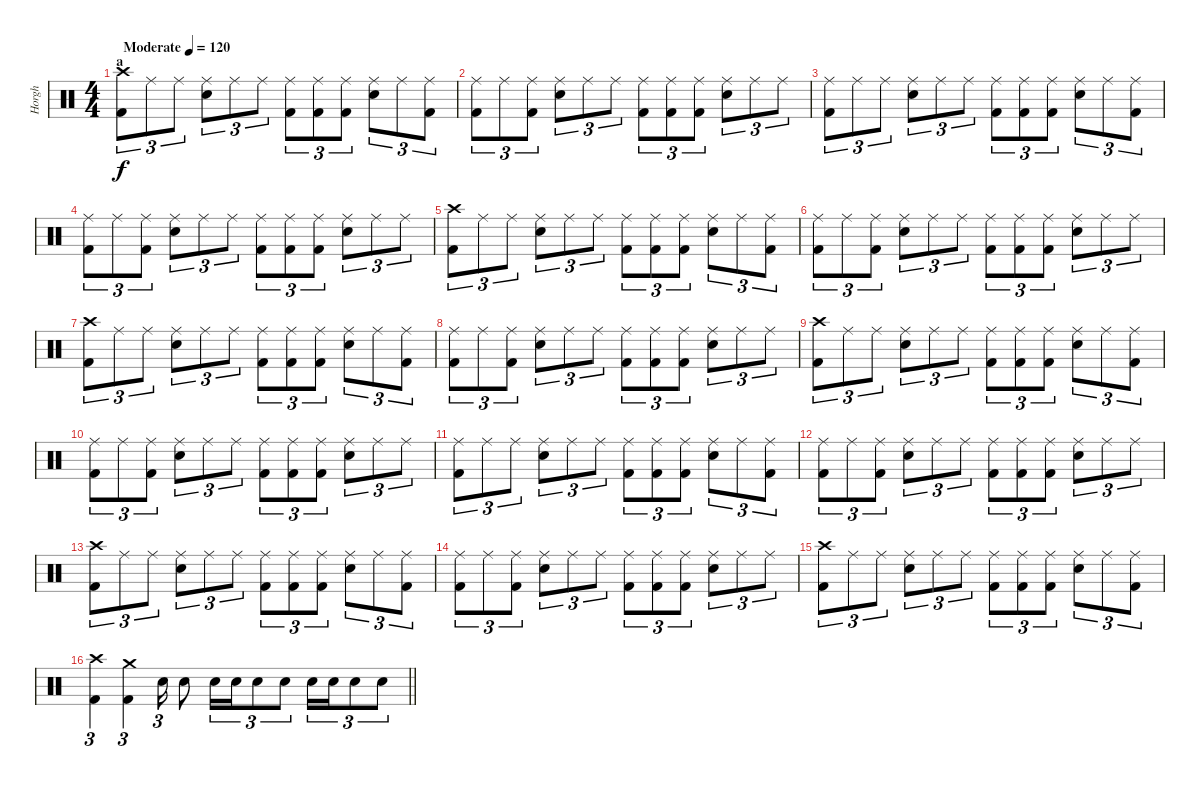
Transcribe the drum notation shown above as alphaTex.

\track ("Horgh" "Horgh") {instrument percussion}
\staff {score}
\articulation defaults
\ts (4 4)
\section ("" "a")
\tempo (120 "Moderate")
\clef neutral
\ks c
("Crash high (hit)" "Kick (hit) 2").8{tu (3 2) dy f} "Ride (middle)".8{tu (3 2)} "Ride (middle)".8{tu (3 2)} ("Ride (middle)" "Electric Snare (hit)").8{tu (3 2)} "Ride (middle)".8{tu (3 2)} "Ride (middle)".8{tu (3 2)} ("Ride (middle)" "Kick (hit) 2").8{tu (3 2)} ("Ride (middle)" "Kick (hit) 2").8{tu (3 2)} ("Ride (middle)" "Kick (hit) 2").8{tu (3 2)} ("Ride (middle)" "Electric Snare (hit)").8{tu (3 2)} "Ride (middle)".8{tu (3 2)} ("Ride (middle)" "Kick (hit) 2").8{tu (3 2)} |
("Ride (middle)" "Kick (hit) 2").8{tu (3 2)} "Ride (middle)".8{tu (3 2)} ("Ride (middle)" "Kick (hit) 2").8{tu (3 2)} ("Ride (middle)" "Electric Snare (hit)").8{tu (3 2)} "Ride (middle)".8{tu (3 2)} "Ride (middle)".8{tu (3 2)} ("Ride (middle)" "Kick (hit) 2").8{tu (3 2)} ("Ride (middle)" "Kick (hit) 2").8{tu (3 2)} ("Ride (middle)" "Kick (hit) 2").8{tu (3 2)} ("Ride (middle)" "Electric Snare (hit)").8{tu (3 2)} "Ride (middle)".8{tu (3 2)} "Ride (middle)".8{tu (3 2)} |
("Ride (middle)" "Kick (hit) 2").8{tu (3 2)} "Ride (middle)".8{tu (3 2)} "Ride (middle)".8{tu (3 2)} ("Ride (middle)" "Electric Snare (hit)").8{tu (3 2)} "Ride (middle)".8{tu (3 2)} "Ride (middle)".8{tu (3 2)} ("Ride (middle)" "Kick (hit) 2").8{tu (3 2)} ("Ride (middle)" "Kick (hit) 2").8{tu (3 2)} ("Ride (middle)" "Kick (hit) 2").8{tu (3 2)} ("Ride (middle)" "Electric Snare (hit)").8{tu (3 2)} "Ride (middle)".8{tu (3 2)} ("Ride (middle)" "Kick (hit) 2").8{tu (3 2)} |
("Ride (middle)" "Kick (hit) 2").8{tu (3 2)} "Ride (middle)".8{tu (3 2)} ("Ride (middle)" "Kick (hit) 2").8{tu (3 2)} ("Ride (middle)" "Electric Snare (hit)").8{tu (3 2)} "Ride (middle)".8{tu (3 2)} "Ride (middle)".8{tu (3 2)} ("Ride (middle)" "Kick (hit) 2").8{tu (3 2)} ("Ride (middle)" "Kick (hit) 2").8{tu (3 2)} ("Ride (middle)" "Kick (hit) 2").8{tu (3 2)} ("Ride (middle)" "Electric Snare (hit)").8{tu (3 2)} "Ride (middle)".8{tu (3 2)} "Ride (middle)".8{tu (3 2)} |
("Crash high (hit)" "Kick (hit) 2").8{tu (3 2)} "Ride (middle)".8{tu (3 2)} "Ride (middle)".8{tu (3 2)} ("Ride (middle)" "Electric Snare (hit)").8{tu (3 2)} "Ride (middle)".8{tu (3 2)} "Ride (middle)".8{tu (3 2)} ("Ride (middle)" "Kick (hit) 2").8{tu (3 2)} ("Ride (middle)" "Kick (hit) 2").8{tu (3 2)} ("Ride (middle)" "Kick (hit) 2").8{tu (3 2)} ("Ride (middle)" "Electric Snare (hit)").8{tu (3 2)} "Ride (middle)".8{tu (3 2)} ("Ride (middle)" "Kick (hit) 2").8{tu (3 2)} |
("Ride (middle)" "Kick (hit) 2").8{tu (3 2)} "Ride (middle)".8{tu (3 2)} ("Ride (middle)" "Kick (hit) 2").8{tu (3 2)} ("Ride (middle)" "Electric Snare (hit)").8{tu (3 2)} "Ride (middle)".8{tu (3 2)} "Ride (middle)".8{tu (3 2)} ("Ride (middle)" "Kick (hit) 2").8{tu (3 2)} ("Ride (middle)" "Kick (hit) 2").8{tu (3 2)} ("Ride (middle)" "Kick (hit) 2").8{tu (3 2)} ("Ride (middle)" "Electric Snare (hit)").8{tu (3 2)} "Ride (middle)".8{tu (3 2)} "Ride (middle)".8{tu (3 2)} |
("Crash high (hit)" "Kick (hit) 2").8{tu (3 2)} "Ride (middle)".8{tu (3 2)} "Ride (middle)".8{tu (3 2)} ("Ride (middle)" "Electric Snare (hit)").8{tu (3 2)} "Ride (middle)".8{tu (3 2)} "Ride (middle)".8{tu (3 2)} ("Ride (middle)" "Kick (hit) 2").8{tu (3 2)} ("Ride (middle)" "Kick (hit) 2").8{tu (3 2)} ("Ride (middle)" "Kick (hit) 2").8{tu (3 2)} ("Ride (middle)" "Electric Snare (hit)").8{tu (3 2)} "Ride (middle)".8{tu (3 2)} ("Ride (middle)" "Kick (hit) 2").8{tu (3 2)} |
("Ride (middle)" "Kick (hit) 2").8{tu (3 2)} "Ride (middle)".8{tu (3 2)} ("Ride (middle)" "Kick (hit) 2").8{tu (3 2)} ("Ride (middle)" "Electric Snare (hit)").8{tu (3 2)} "Ride (middle)".8{tu (3 2)} "Ride (middle)".8{tu (3 2)} ("Ride (middle)" "Kick (hit) 2").8{tu (3 2)} ("Ride (middle)" "Kick (hit) 2").8{tu (3 2)} ("Ride (middle)" "Kick (hit) 2").8{tu (3 2)} ("Ride (middle)" "Electric Snare (hit)").8{tu (3 2)} "Ride (middle)".8{tu (3 2)} "Ride (middle)".8{tu (3 2)} |
("Crash high (hit)" "Kick (hit) 2").8{tu (3 2)} "Ride (middle)".8{tu (3 2)} "Ride (middle)".8{tu (3 2)} ("Ride (middle)" "Electric Snare (hit)").8{tu (3 2)} "Ride (middle)".8{tu (3 2)} "Ride (middle)".8{tu (3 2)} ("Ride (middle)" "Kick (hit) 2").8{tu (3 2)} ("Ride (middle)" "Kick (hit) 2").8{tu (3 2)} ("Ride (middle)" "Kick (hit) 2").8{tu (3 2)} ("Ride (middle)" "Electric Snare (hit)").8{tu (3 2)} "Ride (middle)".8{tu (3 2)} ("Ride (middle)" "Kick (hit) 2").8{tu (3 2)} |
("Ride (middle)" "Kick (hit) 2").8{tu (3 2)} "Ride (middle)".8{tu (3 2)} ("Ride (middle)" "Kick (hit) 2").8{tu (3 2)} ("Ride (middle)" "Electric Snare (hit)").8{tu (3 2)} "Ride (middle)".8{tu (3 2)} "Ride (middle)".8{tu (3 2)} ("Ride (middle)" "Kick (hit) 2").8{tu (3 2)} ("Ride (middle)" "Kick (hit) 2").8{tu (3 2)} ("Ride (middle)" "Kick (hit) 2").8{tu (3 2)} ("Ride (middle)" "Electric Snare (hit)").8{tu (3 2)} "Ride (middle)".8{tu (3 2)} "Ride (middle)".8{tu (3 2)} |
("Ride (middle)" "Kick (hit) 2").8{tu (3 2)} "Ride (middle)".8{tu (3 2)} "Ride (middle)".8{tu (3 2)} ("Ride (middle)" "Electric Snare (hit)").8{tu (3 2)} "Ride (middle)".8{tu (3 2)} "Ride (middle)".8{tu (3 2)} ("Ride (middle)" "Kick (hit) 2").8{tu (3 2)} ("Ride (middle)" "Kick (hit) 2").8{tu (3 2)} ("Ride (middle)" "Kick (hit) 2").8{tu (3 2)} ("Ride (middle)" "Electric Snare (hit)").8{tu (3 2)} "Ride (middle)".8{tu (3 2)} ("Ride (middle)" "Kick (hit) 2").8{tu (3 2)} |
("Ride (middle)" "Kick (hit) 2").8{tu (3 2)} "Ride (middle)".8{tu (3 2)} ("Ride (middle)" "Kick (hit) 2").8{tu (3 2)} ("Ride (middle)" "Electric Snare (hit)").8{tu (3 2)} "Ride (middle)".8{tu (3 2)} "Ride (middle)".8{tu (3 2)} ("Ride (middle)" "Kick (hit) 2").8{tu (3 2)} ("Ride (middle)" "Kick (hit) 2").8{tu (3 2)} ("Ride (middle)" "Kick (hit) 2").8{tu (3 2)} ("Ride (middle)" "Electric Snare (hit)").8{tu (3 2)} "Ride (middle)".8{tu (3 2)} "Ride (middle)".8{tu (3 2)} |
("Crash high (hit)" "Kick (hit) 2").8{tu (3 2)} "Ride (middle)".8{tu (3 2)} "Ride (middle)".8{tu (3 2)} ("Ride (middle)" "Electric Snare (hit)").8{tu (3 2)} "Ride (middle)".8{tu (3 2)} "Ride (middle)".8{tu (3 2)} ("Ride (middle)" "Kick (hit) 2").8{tu (3 2)} ("Ride (middle)" "Kick (hit) 2").8{tu (3 2)} ("Ride (middle)" "Kick (hit) 2").8{tu (3 2)} ("Ride (middle)" "Electric Snare (hit)").8{tu (3 2)} "Ride (middle)".8{tu (3 2)} ("Ride (middle)" "Kick (hit) 2").8{tu (3 2)} |
("Ride (middle)" "Kick (hit) 2").8{tu (3 2)} "Ride (middle)".8{tu (3 2)} ("Ride (middle)" "Kick (hit) 2").8{tu (3 2)} ("Ride (middle)" "Electric Snare (hit)").8{tu (3 2)} "Ride (middle)".8{tu (3 2)} "Ride (middle)".8{tu (3 2)} ("Ride (middle)" "Kick (hit) 2").8{tu (3 2)} ("Ride (middle)" "Kick (hit) 2").8{tu (3 2)} ("Ride (middle)" "Kick (hit) 2").8{tu (3 2)} ("Ride (middle)" "Electric Snare (hit)").8{tu (3 2)} "Ride (middle)".8{tu (3 2)} "Ride (middle)".8{tu (3 2)} |
("Crash high (hit)" "Kick (hit) 2").8{tu (3 2)} "Ride (middle)".8{tu (3 2)} "Ride (middle)".8{tu (3 2)} ("Ride (middle)" "Electric Snare (hit)").8{tu (3 2)} "Ride (middle)".8{tu (3 2)} "Ride (middle)".8{tu (3 2)} ("Ride (middle)" "Kick (hit) 2").8{tu (3 2)} ("Ride (middle)" "Kick (hit) 2").8{tu (3 2)} ("Ride (middle)" "Kick (hit) 2").8{tu (3 2)} ("Ride (middle)" "Electric Snare (hit)").8{tu (3 2)} "Ride (middle)".8{tu (3 2)} ("Ride (middle)" "Kick (hit) 2").8{tu (3 2)} |
\barLineRight lightlight
("Crash high (hit)" "Kick (hit) 2").4{tu (3 2)} ("Crash medium (hit)" "Kick (hit) 2").4{tu (3 2)} "Electric Snare (hit)".16{tu (3 2)} "Electric Snare (hit)".8 "Electric Snare (hit)".16{tu (3 2)} "Electric Snare (hit)".16{tu (3 2)} "Electric Snare (hit)".8{tu (3 2)} "Electric Snare (hit)".8{tu (3 2)} "Electric Snare (hit)".16{tu (3 2)} "Electric Snare (hit)".16{tu (3 2)} "Electric Snare (hit)".8{tu (3 2)} "Electric Snare (hit)".8{tu (3 2)}
